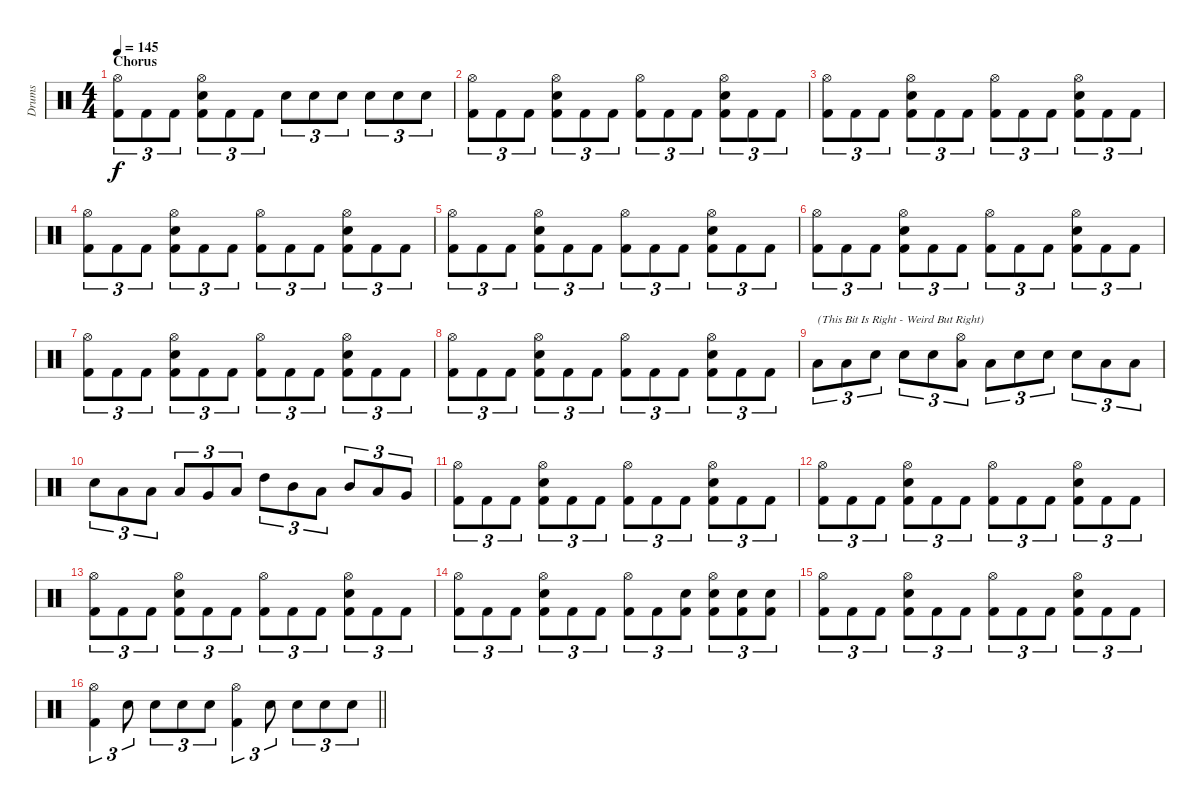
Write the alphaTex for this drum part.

\track ("Drums" "Drums") {instrument percussion}
\staff {score}
\articulation defaults
\ts (4 4)
\section ("" "Chorus")
\tempo 145
\clef neutral
\ks c
("Hi-Hat (open)" "Kick (hit) 2").8{tu (3 2) dy f} "Kick (hit) 2".8{tu (3 2)} "Kick (hit) 2".8{tu (3 2)} ("Hi-Hat (open)" "Electric Snare (hit)" "Kick (hit) 2").8{tu (3 2)} "Kick (hit) 2".8{tu (3 2)} "Kick (hit) 2".8{tu (3 2)} "Electric Snare (hit)".8{tu (3 2)} "Electric Snare (hit)".8{tu (3 2)} "Electric Snare (hit)".8{tu (3 2)} "Electric Snare (hit)".8{tu (3 2)} "Electric Snare (hit)".8{tu (3 2)} "Electric Snare (hit)".8{tu (3 2)} |
("Hi-Hat (open)" "Kick (hit) 2").8{tu (3 2)} "Kick (hit) 2".8{tu (3 2)} "Kick (hit) 2".8{tu (3 2)} ("Hi-Hat (open)" "Electric Snare (hit)" "Kick (hit) 2").8{tu (3 2)} "Kick (hit) 2".8{tu (3 2)} "Kick (hit) 2".8{tu (3 2)} ("Hi-Hat (open)" "Kick (hit) 2").8{tu (3 2)} "Kick (hit) 2".8{tu (3 2)} "Kick (hit) 2".8{tu (3 2)} ("Hi-Hat (open)" "Electric Snare (hit)" "Kick (hit) 2").8{tu (3 2)} "Kick (hit) 2".8{tu (3 2)} "Kick (hit) 2".8{tu (3 2)} |
("Hi-Hat (open)" "Kick (hit) 2").8{tu (3 2)} "Kick (hit) 2".8{tu (3 2)} "Kick (hit) 2".8{tu (3 2)} ("Hi-Hat (open)" "Electric Snare (hit)" "Kick (hit) 2").8{tu (3 2)} "Kick (hit) 2".8{tu (3 2)} "Kick (hit) 2".8{tu (3 2)} ("Hi-Hat (open)" "Kick (hit) 2").8{tu (3 2)} "Kick (hit) 2".8{tu (3 2)} "Kick (hit) 2".8{tu (3 2)} ("Hi-Hat (open)" "Electric Snare (hit)" "Kick (hit) 2").8{tu (3 2)} "Kick (hit) 2".8{tu (3 2)} "Kick (hit) 2".8{tu (3 2)} |
("Hi-Hat (open)" "Kick (hit) 2").8{tu (3 2)} "Kick (hit) 2".8{tu (3 2)} "Kick (hit) 2".8{tu (3 2)} ("Hi-Hat (open)" "Electric Snare (hit)" "Kick (hit) 2").8{tu (3 2)} "Kick (hit) 2".8{tu (3 2)} "Kick (hit) 2".8{tu (3 2)} ("Hi-Hat (open)" "Kick (hit) 2").8{tu (3 2)} "Kick (hit) 2".8{tu (3 2)} "Kick (hit) 2".8{tu (3 2)} ("Hi-Hat (open)" "Electric Snare (hit)" "Kick (hit) 2").8{tu (3 2)} "Kick (hit) 2".8{tu (3 2)} "Kick (hit) 2".8{tu (3 2)} |
("Hi-Hat (open)" "Kick (hit) 2").8{tu (3 2)} "Kick (hit) 2".8{tu (3 2)} "Kick (hit) 2".8{tu (3 2)} ("Hi-Hat (open)" "Electric Snare (hit)" "Kick (hit) 2").8{tu (3 2)} "Kick (hit) 2".8{tu (3 2)} "Kick (hit) 2".8{tu (3 2)} ("Hi-Hat (open)" "Kick (hit) 2").8{tu (3 2)} "Kick (hit) 2".8{tu (3 2)} "Kick (hit) 2".8{tu (3 2)} ("Hi-Hat (open)" "Electric Snare (hit)" "Kick (hit) 2").8{tu (3 2)} "Kick (hit) 2".8{tu (3 2)} "Kick (hit) 2".8{tu (3 2)} |
("Hi-Hat (open)" "Kick (hit) 2").8{tu (3 2)} "Kick (hit) 2".8{tu (3 2)} "Kick (hit) 2".8{tu (3 2)} ("Hi-Hat (open)" "Electric Snare (hit)" "Kick (hit) 2").8{tu (3 2)} "Kick (hit) 2".8{tu (3 2)} "Kick (hit) 2".8{tu (3 2)} ("Hi-Hat (open)" "Kick (hit) 2").8{tu (3 2)} "Kick (hit) 2".8{tu (3 2)} "Kick (hit) 2".8{tu (3 2)} ("Hi-Hat (open)" "Electric Snare (hit)" "Kick (hit) 2").8{tu (3 2)} "Kick (hit) 2".8{tu (3 2)} "Kick (hit) 2".8{tu (3 2)} |
("Hi-Hat (open)" "Kick (hit) 2").8{tu (3 2)} "Kick (hit) 2".8{tu (3 2)} "Kick (hit) 2".8{tu (3 2)} ("Hi-Hat (open)" "Electric Snare (hit)" "Kick (hit) 2").8{tu (3 2)} "Kick (hit) 2".8{tu (3 2)} "Kick (hit) 2".8{tu (3 2)} ("Hi-Hat (open)" "Kick (hit) 2").8{tu (3 2)} "Kick (hit) 2".8{tu (3 2)} "Kick (hit) 2".8{tu (3 2)} ("Hi-Hat (open)" "Electric Snare (hit)" "Kick (hit) 2").8{tu (3 2)} "Kick (hit) 2".8{tu (3 2)} "Kick (hit) 2".8{tu (3 2)} |
("Hi-Hat (open)" "Kick (hit) 2").8{tu (3 2)} "Kick (hit) 2".8{tu (3 2)} "Kick (hit) 2".8{tu (3 2)} ("Hi-Hat (open)" "Electric Snare (hit)" "Kick (hit) 2").8{tu (3 2)} "Kick (hit) 2".8{tu (3 2)} "Kick (hit) 2".8{tu (3 2)} ("Hi-Hat (open)" "Kick (hit) 2").8{tu (3 2)} "Kick (hit) 2".8{tu (3 2)} "Kick (hit) 2".8{tu (3 2)} ("Hi-Hat (open)" "Electric Snare (hit)" "Kick (hit) 2").8{tu (3 2)} "Kick (hit) 2".8{tu (3 2)} "Kick (hit) 2".8{tu (3 2)} |
"Low Tom (hit)".8{tu (3 2) txt "(This Bit Is Right - Weird But Right)"} "Low Tom (hit)".8{tu (3 2)} "Electric Snare (hit)".8{tu (3 2)} "Electric Snare (hit)".8{tu (3 2)} "Electric Snare (hit)".8{tu (3 2)} ("Hi-Hat (open)" "Low Tom (hit)").8{tu (3 2)} "Low Tom (hit)".8{tu (3 2)} "Electric Snare (hit)".8{tu (3 2)} "Electric Snare (hit)".8{tu (3 2)} "Electric Snare (hit)".8{tu (3 2)} "Low Tom (hit)".8{tu (3 2)} "Low Tom (hit)".8{tu (3 2)} |
"Electric Snare (hit)".8{tu (3 2)} "Low Tom (hit)".8{tu (3 2)} "Low Tom (hit)".8{tu (3 2)} "Low Tom (hit)".8{tu (3 2)} "Very Low Tom (hit)".8{tu (3 2)} "Low Floor Tom (hit)".8{tu (3 2)} "High Tom (hit)".8{tu (3 2)} "Mid Tom (hit)".8{tu (3 2)} "Low Tom (hit)".8{tu (3 2)} "Mid Tom (hit)".8{tu (3 2)} "Low Tom (hit)".8{tu (3 2)} "Very Low Tom (hit)".8{tu (3 2)} |
("Hi-Hat (open)" "Kick (hit) 2").8{tu (3 2)} "Kick (hit) 2".8{tu (3 2)} "Kick (hit) 2".8{tu (3 2)} ("Hi-Hat (open)" "Electric Snare (hit)" "Kick (hit) 2").8{tu (3 2)} "Kick (hit) 2".8{tu (3 2)} "Kick (hit) 2".8{tu (3 2)} ("Hi-Hat (open)" "Kick (hit) 2").8{tu (3 2)} "Kick (hit) 2".8{tu (3 2)} "Kick (hit) 2".8{tu (3 2)} ("Hi-Hat (open)" "Electric Snare (hit)" "Kick (hit) 2").8{tu (3 2)} "Kick (hit) 2".8{tu (3 2)} "Kick (hit) 2".8{tu (3 2)} |
("Hi-Hat (open)" "Kick (hit) 2").8{tu (3 2)} "Kick (hit) 2".8{tu (3 2)} "Kick (hit) 2".8{tu (3 2)} ("Hi-Hat (open)" "Electric Snare (hit)" "Kick (hit) 2").8{tu (3 2)} "Kick (hit) 2".8{tu (3 2)} "Kick (hit) 2".8{tu (3 2)} ("Hi-Hat (open)" "Kick (hit) 2").8{tu (3 2)} "Kick (hit) 2".8{tu (3 2)} "Kick (hit) 2".8{tu (3 2)} ("Hi-Hat (open)" "Electric Snare (hit)" "Kick (hit) 2").8{tu (3 2)} "Kick (hit) 2".8{tu (3 2)} "Kick (hit) 2".8{tu (3 2)} |
("Hi-Hat (open)" "Kick (hit) 2").8{tu (3 2)} "Kick (hit) 2".8{tu (3 2)} "Kick (hit) 2".8{tu (3 2)} ("Hi-Hat (open)" "Electric Snare (hit)" "Kick (hit) 2").8{tu (3 2)} "Kick (hit) 2".8{tu (3 2)} "Kick (hit) 2".8{tu (3 2)} ("Hi-Hat (open)" "Kick (hit) 2").8{tu (3 2)} "Kick (hit) 2".8{tu (3 2)} "Kick (hit) 2".8{tu (3 2)} ("Hi-Hat (open)" "Electric Snare (hit)" "Kick (hit) 2").8{tu (3 2)} "Kick (hit) 2".8{tu (3 2)} "Kick (hit) 2".8{tu (3 2)} |
("Hi-Hat (open)" "Kick (hit) 2").8{tu (3 2)} "Kick (hit) 2".8{tu (3 2)} "Kick (hit) 2".8{tu (3 2)} ("Hi-Hat (open)" "Electric Snare (hit)" "Kick (hit) 2").8{tu (3 2)} "Kick (hit) 2".8{tu (3 2)} "Kick (hit) 2".8{tu (3 2)} ("Hi-Hat (open)" "Kick (hit) 2").8{tu (3 2)} "Kick (hit) 2".8{tu (3 2)} ("Electric Snare (hit)" "Kick (hit) 2").8{tu (3 2)} ("Hi-Hat (open)" "Electric Snare (hit)" "Kick (hit) 2").8{tu (3 2)} ("Electric Snare (hit)" "Kick (hit) 2").8{tu (3 2)} ("Electric Snare (hit)" "Kick (hit) 2").8{tu (3 2)} |
("Hi-Hat (open)" "Kick (hit) 2").8{tu (3 2)} "Kick (hit) 2".8{tu (3 2)} "Kick (hit) 2".8{tu (3 2)} ("Hi-Hat (open)" "Electric Snare (hit)" "Kick (hit) 2").8{tu (3 2)} "Kick (hit) 2".8{tu (3 2)} "Kick (hit) 2".8{tu (3 2)} ("Hi-Hat (open)" "Kick (hit) 2").8{tu (3 2)} "Kick (hit) 2".8{tu (3 2)} "Kick (hit) 2".8{tu (3 2)} ("Hi-Hat (open)" "Electric Snare (hit)" "Kick (hit) 2").8{tu (3 2)} "Kick (hit) 2".8{tu (3 2)} "Kick (hit) 2".8{tu (3 2)} |
\barLineRight lightlight
("Hi-Hat (open)" "Kick (hit) 2").4{tu (3 2)} "Electric Snare (hit)".8{tu (3 2)} "Electric Snare (hit)".8{tu (3 2)} "Electric Snare (hit)".8{tu (3 2)} "Electric Snare (hit)".8{tu (3 2)} ("Hi-Hat (open)" "Kick (hit) 2").4{tu (3 2)} "Electric Snare (hit)".8{tu (3 2)} "Electric Snare (hit)".8{tu (3 2)} "Electric Snare (hit)".8{tu (3 2)} "Electric Snare (hit)".8{tu (3 2)}
